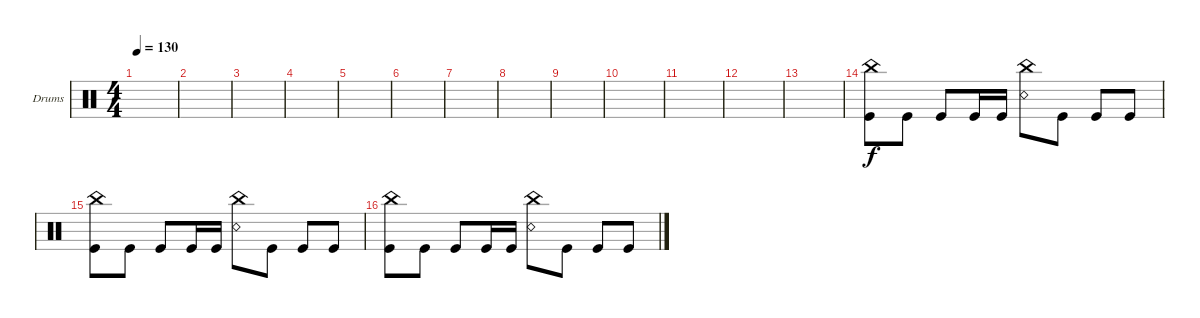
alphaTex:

\defaultSystemsLayout 4
\bracketExtendMode groupsimilarinstruments
\firstSystemTrackNameOrientation horizontal
\otherSystemsTrackNameOrientation horizontal
\track ("Drumkit" "Drums") {instrument percussion}
\staff {score}
\articulation defaults
\ts (4 4)
\tempo 130
\clef neutral
\ks c
|
|
|
|
|
|
|
|
|
|
|
|
|
("China (hit)" "Kick (hit)").8 "Kick (hit)".8 "Kick (hit)".8 "Kick (hit)".16 "Kick (hit)".16 ("Snare (rim shot)" "China (hit)").8 "Kick (hit)".8 "Kick (hit)".8 "Kick (hit)".8 |
("China (hit)" "Kick (hit)").8 "Kick (hit)".8 "Kick (hit)".8 "Kick (hit)".16 "Kick (hit)".16 ("Snare (rim shot)" "China (hit)").8 "Kick (hit)".8 "Kick (hit)".8 "Kick (hit)".8 |
("China (hit)" "Kick (hit)").8 "Kick (hit)".8 "Kick (hit)".8 "Kick (hit)".16 "Kick (hit)".16 ("Snare (rim shot)" "China (hit)").8 "Kick (hit)".8 "Kick (hit)".8 "Kick (hit)".8
